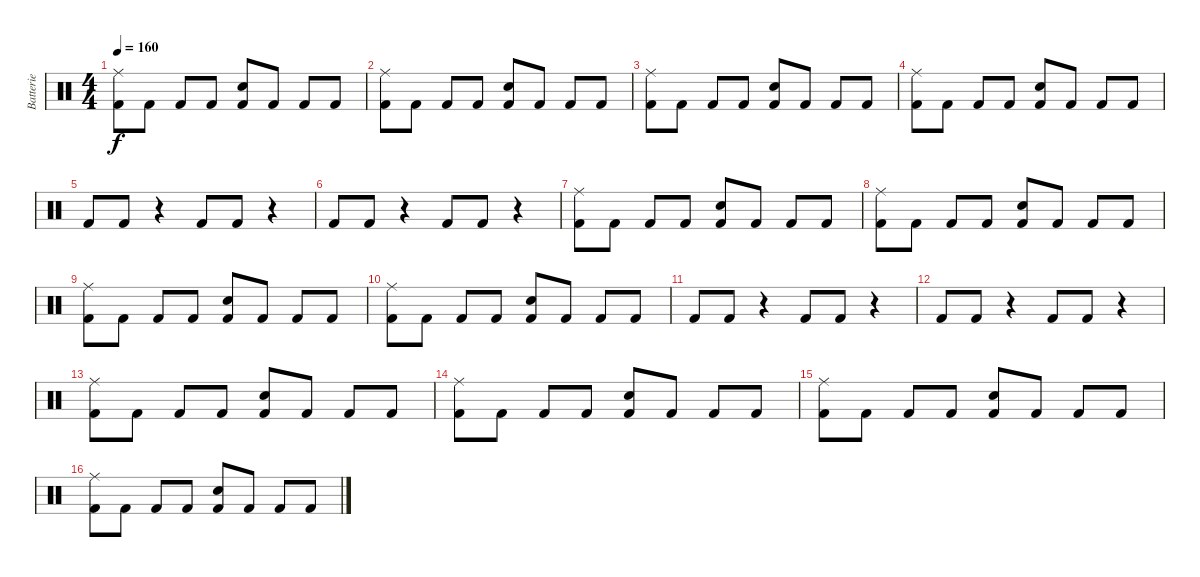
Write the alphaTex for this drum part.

\track ("Batterie" "Batterie") {instrument percussion}
\staff {score}
\articulation defaults
\ts (4 4)
\tempo 160
\clef neutral
\ks c
("Kick (hit) 2" "Ride (middle)").8{dy f} "Kick (hit) 2".8 "Kick (hit) 2".8 "Kick (hit) 2".8 ("Kick (hit) 2" "Snare (hit) 2").8 "Kick (hit) 2".8 "Kick (hit) 2".8 "Kick (hit) 2".8 |
("Kick (hit) 2" "Ride (middle)").8 "Kick (hit) 2".8 "Kick (hit) 2".8 "Kick (hit) 2".8 ("Kick (hit) 2" "Snare (hit) 2").8 "Kick (hit) 2".8 "Kick (hit) 2".8 "Kick (hit) 2".8 |
("Kick (hit) 2" "Ride (middle)").8 "Kick (hit) 2".8 "Kick (hit) 2".8 "Kick (hit) 2".8 ("Kick (hit) 2" "Snare (hit) 2").8 "Kick (hit) 2".8 "Kick (hit) 2".8 "Kick (hit) 2".8 |
("Kick (hit) 2" "Ride (middle)").8 "Kick (hit) 2".8 "Kick (hit) 2".8 "Kick (hit) 2".8 ("Kick (hit) 2" "Snare (hit) 2").8 "Kick (hit) 2".8 "Kick (hit) 2".8 "Kick (hit) 2".8 |
"Kick (hit) 2".8 "Kick (hit) 2".8 r.4 "Kick (hit) 2".8 "Kick (hit) 2".8 r.4 |
"Kick (hit) 2".8 "Kick (hit) 2".8 r.4 "Kick (hit) 2".8 "Kick (hit) 2".8 r.4 |
("Kick (hit) 2" "Ride (middle)").8 "Kick (hit) 2".8 "Kick (hit) 2".8 "Kick (hit) 2".8 ("Kick (hit) 2" "Snare (hit) 2").8 "Kick (hit) 2".8 "Kick (hit) 2".8 "Kick (hit) 2".8 |
("Kick (hit) 2" "Ride (middle)").8 "Kick (hit) 2".8 "Kick (hit) 2".8 "Kick (hit) 2".8 ("Kick (hit) 2" "Snare (hit) 2").8 "Kick (hit) 2".8 "Kick (hit) 2".8 "Kick (hit) 2".8 |
("Kick (hit) 2" "Ride (middle)").8 "Kick (hit) 2".8 "Kick (hit) 2".8 "Kick (hit) 2".8 ("Kick (hit) 2" "Snare (hit) 2").8 "Kick (hit) 2".8 "Kick (hit) 2".8 "Kick (hit) 2".8 |
("Kick (hit) 2" "Ride (middle)").8 "Kick (hit) 2".8 "Kick (hit) 2".8 "Kick (hit) 2".8 ("Kick (hit) 2" "Snare (hit) 2").8 "Kick (hit) 2".8 "Kick (hit) 2".8 "Kick (hit) 2".8 |
"Kick (hit) 2".8 "Kick (hit) 2".8 r.4 "Kick (hit) 2".8 "Kick (hit) 2".8 r.4 |
"Kick (hit) 2".8 "Kick (hit) 2".8 r.4 "Kick (hit) 2".8 "Kick (hit) 2".8 r.4 |
("Kick (hit) 2" "Ride (middle)").8 "Kick (hit) 2".8 "Kick (hit) 2".8 "Kick (hit) 2".8 ("Kick (hit) 2" "Snare (hit) 2").8 "Kick (hit) 2".8 "Kick (hit) 2".8 "Kick (hit) 2".8 |
("Kick (hit) 2" "Ride (middle)").8 "Kick (hit) 2".8 "Kick (hit) 2".8 "Kick (hit) 2".8 ("Kick (hit) 2" "Snare (hit) 2").8 "Kick (hit) 2".8 "Kick (hit) 2".8 "Kick (hit) 2".8 |
("Kick (hit) 2" "Ride (middle)").8 "Kick (hit) 2".8 "Kick (hit) 2".8 "Kick (hit) 2".8 ("Kick (hit) 2" "Snare (hit) 2").8 "Kick (hit) 2".8 "Kick (hit) 2".8 "Kick (hit) 2".8 |
("Kick (hit) 2" "Ride (middle)").8 "Kick (hit) 2".8 "Kick (hit) 2".8 "Kick (hit) 2".8 ("Kick (hit) 2" "Snare (hit) 2").8 "Kick (hit) 2".8 "Kick (hit) 2".8 "Kick (hit) 2".8
